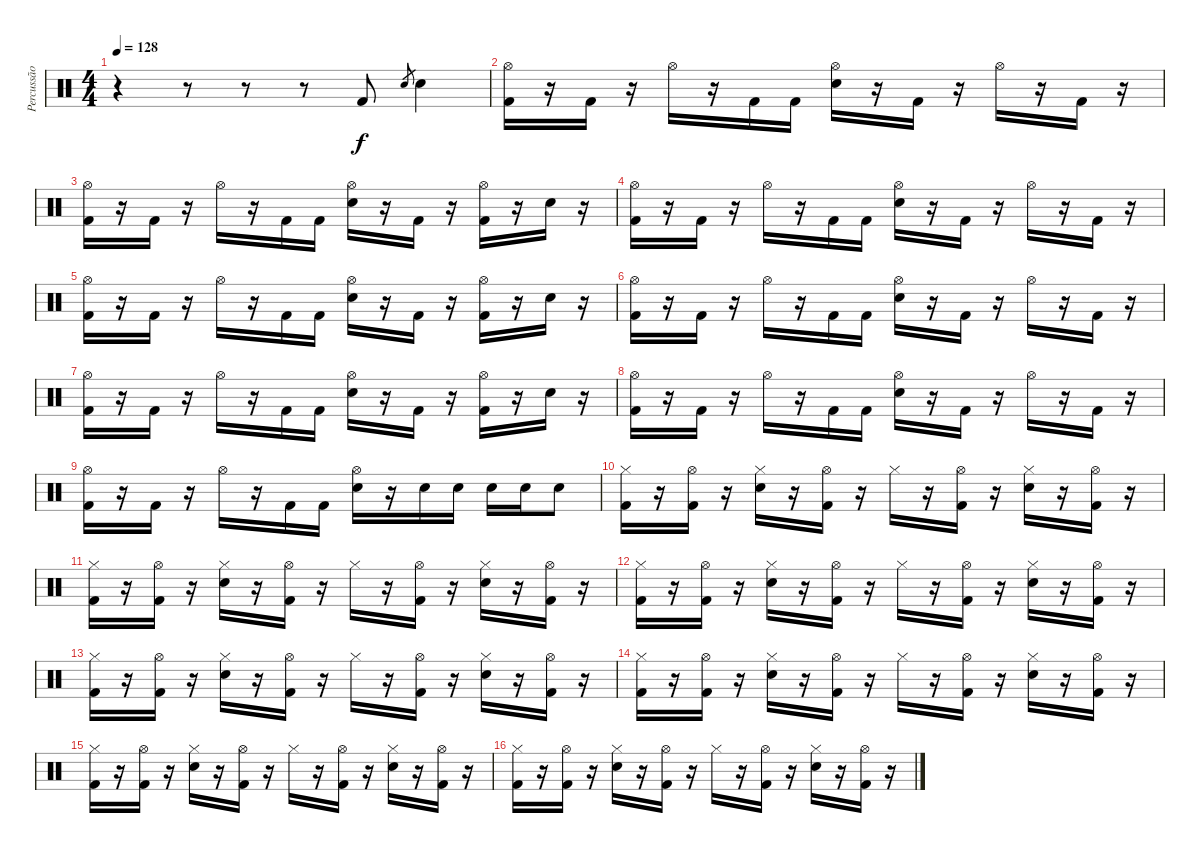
\track ("Percussão" "Percussão") {instrument percussion}
\staff {score}
\articulation defaults
\ts (4 4)
\tempo 128
\clef neutral
\ks c
r.4{dy f} r.8 r.8 r.8 "Kick (hit) 2".8 "Electric Snare (hit)".8{gr} "Electric Snare (hit)".4 |
("Hi-Hat (open)" "Kick (hit) 2").16 r.16 "Kick (hit) 2".16 r.16 "Hi-Hat (open)".16 r.16 "Kick (hit) 2".16 "Kick (hit) 2".16 ("Hi-Hat (open)" "Electric Snare (hit)").16 r.16 "Kick (hit) 2".16 r.16 "Hi-Hat (open)".16 r.16 "Kick (hit) 2".16 r.16 |
("Hi-Hat (open)" "Kick (hit) 2").16 r.16 "Kick (hit) 2".16 r.16 "Hi-Hat (open)".16 r.16 "Kick (hit) 2".16 "Kick (hit) 2".16 ("Hi-Hat (open)" "Electric Snare (hit)").16 r.16 "Kick (hit) 2".16 r.16 ("Hi-Hat (open)" "Kick (hit) 2").16 r.16 "Electric Snare (hit)".16 r.16 |
("Hi-Hat (open)" "Kick (hit) 2").16 r.16 "Kick (hit) 2".16 r.16 "Hi-Hat (open)".16 r.16 "Kick (hit) 2".16 "Kick (hit) 2".16 ("Hi-Hat (open)" "Electric Snare (hit)").16 r.16 "Kick (hit) 2".16 r.16 "Hi-Hat (open)".16 r.16 "Kick (hit) 2".16 r.16 |
("Hi-Hat (open)" "Kick (hit) 2").16 r.16 "Kick (hit) 2".16 r.16 "Hi-Hat (open)".16 r.16 "Kick (hit) 2".16 "Kick (hit) 2".16 ("Hi-Hat (open)" "Electric Snare (hit)").16 r.16 "Kick (hit) 2".16 r.16 ("Hi-Hat (open)" "Kick (hit) 2").16 r.16 "Electric Snare (hit)".16 r.16 |
("Hi-Hat (open)" "Kick (hit) 2").16 r.16 "Kick (hit) 2".16 r.16 "Hi-Hat (open)".16 r.16 "Kick (hit) 2".16 "Kick (hit) 2".16 ("Hi-Hat (open)" "Electric Snare (hit)").16 r.16 "Kick (hit) 2".16 r.16 "Hi-Hat (open)".16 r.16 "Kick (hit) 2".16 r.16 |
("Hi-Hat (open)" "Kick (hit) 2").16 r.16 "Kick (hit) 2".16 r.16 "Hi-Hat (open)".16 r.16 "Kick (hit) 2".16 "Kick (hit) 2".16 ("Hi-Hat (open)" "Electric Snare (hit)").16 r.16 "Kick (hit) 2".16 r.16 ("Hi-Hat (open)" "Kick (hit) 2").16 r.16 "Electric Snare (hit)".16 r.16 |
("Hi-Hat (open)" "Kick (hit) 2").16 r.16 "Kick (hit) 2".16 r.16 "Hi-Hat (open)".16 r.16 "Kick (hit) 2".16 "Kick (hit) 2".16 ("Hi-Hat (open)" "Electric Snare (hit)").16 r.16 "Kick (hit) 2".16 r.16 "Hi-Hat (open)".16 r.16 "Kick (hit) 2".16 r.16 |
("Hi-Hat (open)" "Kick (hit) 2").16 r.16 "Kick (hit) 2".16 r.16 "Hi-Hat (open)".16 r.16 "Kick (hit) 2".16 "Kick (hit) 2".16 ("Hi-Hat (open)" "Electric Snare (hit)").16 r.16 "Electric Snare (hit)".16 "Electric Snare (hit)".16 "Electric Snare (hit)".16 "Electric Snare (hit)".16 "Electric Snare (hit)".8 |
("Hi-Hat (closed)" "Kick (hit) 2").16 r.16 ("Hi-Hat (open)" "Kick (hit) 2").16 r.16 ("Hi-Hat (closed)" "Electric Snare (hit)").16 r.16 ("Hi-Hat (open)" "Kick (hit) 2").16 r.16 "Hi-Hat (closed)".16 r.16 ("Hi-Hat (open)" "Kick (hit) 2").16 r.16 ("Hi-Hat (closed)" "Electric Snare (hit)").16 r.16 ("Hi-Hat (open)" "Kick (hit) 2").16 r.16 |
("Hi-Hat (closed)" "Kick (hit) 2").16 r.16 ("Hi-Hat (open)" "Kick (hit) 2").16 r.16 ("Hi-Hat (closed)" "Electric Snare (hit)").16 r.16 ("Hi-Hat (open)" "Kick (hit) 2").16 r.16 "Hi-Hat (closed)".16 r.16 ("Hi-Hat (open)" "Kick (hit) 2").16 r.16 ("Hi-Hat (closed)" "Electric Snare (hit)").16 r.16 ("Hi-Hat (open)" "Kick (hit) 2").16 r.16 |
("Hi-Hat (closed)" "Kick (hit) 2").16 r.16 ("Hi-Hat (open)" "Kick (hit) 2").16 r.16 ("Hi-Hat (closed)" "Electric Snare (hit)").16 r.16 ("Hi-Hat (open)" "Kick (hit) 2").16 r.16 "Hi-Hat (closed)".16 r.16 ("Hi-Hat (open)" "Kick (hit) 2").16 r.16 ("Hi-Hat (closed)" "Electric Snare (hit)").16 r.16 ("Hi-Hat (open)" "Kick (hit) 2").16 r.16 |
("Hi-Hat (closed)" "Kick (hit) 2").16 r.16 ("Hi-Hat (open)" "Kick (hit) 2").16 r.16 ("Hi-Hat (closed)" "Electric Snare (hit)").16 r.16 ("Hi-Hat (open)" "Kick (hit) 2").16 r.16 "Hi-Hat (closed)".16 r.16 ("Hi-Hat (open)" "Kick (hit) 2").16 r.16 ("Hi-Hat (closed)" "Electric Snare (hit)").16 r.16 ("Hi-Hat (open)" "Kick (hit) 2").16 r.16 |
("Hi-Hat (closed)" "Kick (hit) 2").16 r.16 ("Hi-Hat (open)" "Kick (hit) 2").16 r.16 ("Hi-Hat (closed)" "Electric Snare (hit)").16 r.16 ("Hi-Hat (open)" "Kick (hit) 2").16 r.16 "Hi-Hat (closed)".16 r.16 ("Hi-Hat (open)" "Kick (hit) 2").16 r.16 ("Hi-Hat (closed)" "Electric Snare (hit)").16 r.16 ("Hi-Hat (open)" "Kick (hit) 2").16 r.16 |
("Hi-Hat (closed)" "Kick (hit) 2").16 r.16 ("Hi-Hat (open)" "Kick (hit) 2").16 r.16 ("Hi-Hat (closed)" "Electric Snare (hit)").16 r.16 ("Hi-Hat (open)" "Kick (hit) 2").16 r.16 "Hi-Hat (closed)".16 r.16 ("Hi-Hat (open)" "Kick (hit) 2").16 r.16 ("Hi-Hat (closed)" "Electric Snare (hit)").16 r.16 ("Hi-Hat (open)" "Kick (hit) 2").16 r.16 |
("Hi-Hat (closed)" "Kick (hit) 2").16 r.16 ("Hi-Hat (open)" "Kick (hit) 2").16 r.16 ("Hi-Hat (closed)" "Electric Snare (hit)").16 r.16 ("Hi-Hat (open)" "Kick (hit) 2").16 r.16 "Hi-Hat (closed)".16 r.16 ("Hi-Hat (open)" "Kick (hit) 2").16 r.16 ("Hi-Hat (closed)" "Electric Snare (hit)").16 r.16 ("Hi-Hat (open)" "Kick (hit) 2").16 r.16
